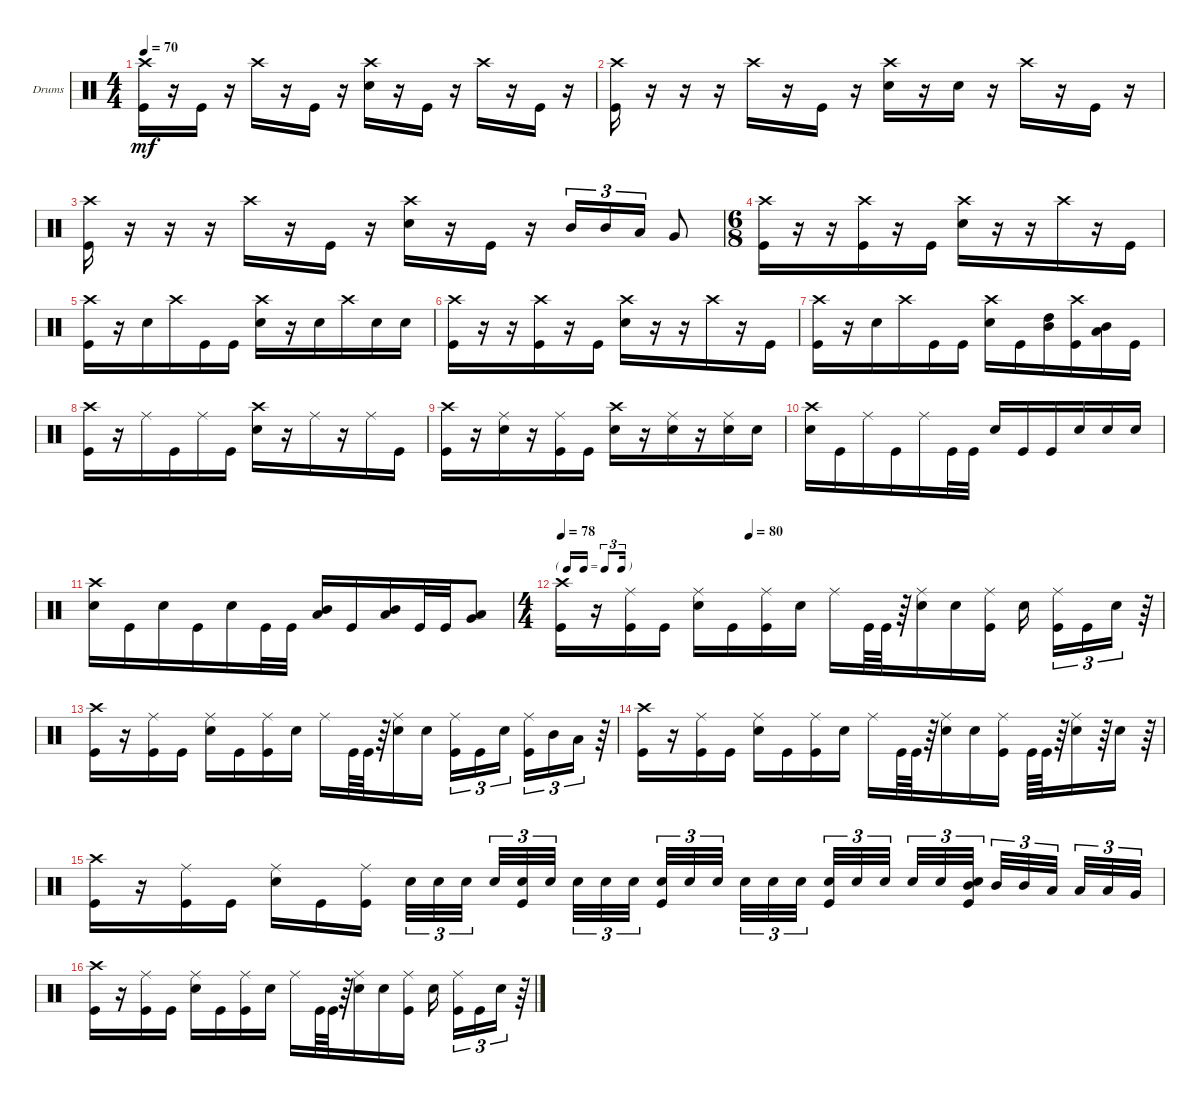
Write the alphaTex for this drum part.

\defaultSystemsLayout 4
\bracketExtendMode groupsimilarinstruments
\firstSystemTrackNameOrientation horizontal
\otherSystemsTrackNameOrientation horizontal
\track ("Drumkit" "Drums") {instrument percussion}
\staff {score}
\articulation defaults
\ts (4 4)
\tempo 70
\clef neutral
\ks c
("Kick (hit)" "Crash high (hit)").16{dy mf} r.16 "Kick (hit)".16 r.16 "Crash high (hit)".16 r.16 "Kick (hit)".16 r.16 ("Crash high (hit)" "Snare (hit) 2").16 r.16 "Kick (hit)".16 r.16 "Crash high (hit)".16 r.16 "Kick (hit)".16 r.16 |
("Kick (hit)" "Crash high (hit)").16 r.16 r.16 r.16 "Crash high (hit)".16 r.16 "Kick (hit)".16 r.16 ("Crash high (hit)" "Snare (hit) 2").16 r.16 "Snare (hit) 2".16 r.16 "Crash high (hit)".16 r.16 "Kick (hit)".16 r.16 |
("Kick (hit)" "Crash high (hit)").16 r.16 r.16 r.16 "Crash high (hit)".16 r.16 "Kick (hit)".16 r.16 ("Crash high (hit)" "Snare (hit) 2").16 r.16 "Kick (hit)".16 r.16 "Mid Tom (hit)".16{tu (3 2)} "Mid Tom (hit)".16{tu (3 2)} "Low Tom (hit)".16{tu (3 2)} "Very Low Tom (hit)".8 |
\ts (6 8)
("Crash high (hit)" "Kick (hit)").16 r.16 r.16 ("Crash high (hit)" "Kick (hit)").16 r.16 "Kick (hit)".16 ("Crash high (hit)" "Snare (hit) 2").16 r.16 r.16 "Crash high (hit)".16 r.16 "Kick (hit)".16 |
("Crash high (hit)" "Kick (hit)").16 r.16 "Snare (hit) 2".16 "Crash high (hit)".16 "Kick (hit)".16 "Kick (hit)".16 ("Crash high (hit)" "Snare (hit) 2").16 r.16 "Snare (hit) 2".16 "Crash high (hit)".16 "Snare (hit) 2".16 "Snare (hit) 2".16 |
("Crash high (hit)" "Kick (hit)").16 r.16 r.16 ("Crash high (hit)" "Kick (hit)").16 r.16 "Kick (hit)".16 ("Crash high (hit)" "Snare (hit) 2").16 r.16 r.16 "Crash high (hit)".16 r.16 "Kick (hit)".16 |
("Crash high (hit)" "Kick (hit)").16 r.16 "Snare (hit) 2".16 "Crash high (hit)".16 "Kick (hit)".16 "Kick (hit)".16 ("Crash high (hit)" "Snare (hit) 2").16 "Kick (hit)".16 ("High Tom (hit)" "Mid Tom (hit)").16 ("Crash high (hit)" "Kick (hit)").16 ("Mid Tom (hit)" "Low Tom (hit)").16 "Kick (hit)".16 |
("Kick (hit)" "Crash high (hit)").16 r.16 "Ride (middle)".16 "Kick (hit)".16 "Ride (middle)".16 "Kick (hit)".16 ("Snare (hit) 2" "Crash high (hit)").16 r.16 "Ride (middle)".16 r.16 "Ride (middle)".16 "Kick (hit)".16 |
("Kick (hit)" "Crash high (hit)").16 r.16 ("Snare (hit) 2" "Ride (middle)").16 r.16 ("Kick (hit)" "Ride (middle)").16 "Kick (hit)".16 ("Snare (hit) 2" "Crash high (hit)").16 r.16 ("Snare (hit) 2" "Ride (middle)").16 r.16 ("Snare (hit) 2" "Ride (middle)").16 "Snare (hit) 2".16 |
("Crash high (hit)" "Snare (hit) 2").16 "Kick (hit)".16 "Ride (middle)".16 "Kick (hit)".16 "Ride (middle)".16 "Kick (hit)".32 "Kick (hit)".32 "Snare (hit) 2".16 "Kick (hit)".16 "Kick (hit)".16 "Snare (hit) 2".16 "Snare (hit) 2".16 "Snare (hit) 2".16 |
("Crash high (hit)" "Snare (hit) 2").16 "Kick (hit)".16 "Snare (hit) 2".16 "Kick (hit)".16 "Snare (hit) 2".16 "Kick (hit)".32 "Kick (hit)".32 ("Mid Tom (hit)" "Low Tom (hit)").16 "Kick (hit)".16 ("Low Tom (hit)" "Mid Tom (hit)").16 "Kick (hit)".32 "Kick (hit)".32 ("Low Tom (hit)" "Very Low Tom (hit)").8 |
\ts (4 4)
\tf triplet16th
\tempo 78
\tempo (80 0.3125)
("Crash high (hit)" "Kick (hit)").16 r.16 ("Ride (middle)" "Kick (hit)").16 "Kick (hit)".16 ("Ride (middle)" "Snare (hit) 2").16 "Kick (hit)".16 ("Ride (middle)" "Kick (hit)").16 "Snare (hit) 2".16 "Ride (middle)".16 "Kick (hit)".64 "Kick (hit)".64 r.64 ("Snare (hit) 2" "Ride (middle)").16 "Snare (hit) 2".16 ("Kick (hit)" "Ride (middle)").16 "Snare (hit) 2".16 ("Kick (hit)" "Ride (middle)").16{tu (3 2)} "Kick (hit)".16{tu (3 2)} "Snare (hit) 2".16{tu (3 2)} r.64 |
("Crash high (hit)" "Kick (hit)").16 r.16 ("Ride (middle)" "Kick (hit)").16 "Kick (hit)".16 ("Ride (middle)" "Snare (hit) 2").16 "Kick (hit)".16 ("Ride (middle)" "Kick (hit)").16 "Snare (hit) 2".16 "Ride (middle)".16 "Kick (hit)".64 "Kick (hit)".64 r.64 ("Snare (hit) 2" "Ride (middle)").16 "Snare (hit) 2".16 ("Kick (hit)" "Ride (middle)").16{tu (3 2)} "Kick (hit)".16{tu (3 2)} "Snare (hit) 2".16{tu (3 2)} ("Kick (hit)" "Ride (middle)").16{tu (3 2)} "Mid Tom (hit)".16{tu (3 2)} "Low Tom (hit)".16{tu (3 2)} r.64 |
("Crash high (hit)" "Kick (hit)").16 r.16 ("Ride (middle)" "Kick (hit)").16 "Kick (hit)".16 ("Ride (middle)" "Snare (hit) 2").16 "Kick (hit)".16 ("Ride (middle)" "Kick (hit)").16 "Snare (hit) 2".16 "Ride (middle)".16 "Kick (hit)".64 "Kick (hit)".64 r.64 ("Snare (hit) 2" "Ride (middle)").16 "Snare (hit) 2".16 ("Kick (hit)" "Ride (middle)").16 "Kick (hit)".64 "Kick (hit)".64 r.64 ("Snare (hit) 2" "Ride (middle)").16 r.64 "Snare (hit) 2".16 r.64 |
("Crash high (hit)" "Kick (hit)").16 r.16 ("Ride (middle)" "Kick (hit)").16 "Kick (hit)".16 ("Ride (middle)" "Snare (hit) 2").16 "Kick (hit)".16 ("Ride (middle)" "Kick (hit)").16 "Snare (hit) 2".32{tu (3 2)} "Snare (hit) 2".32{tu (3 2)} "Snare (hit) 2".32{tu (3 2)} "Snare (hit) 2".32{tu (3 2)} ("Snare (hit) 2" "Kick (hit)").32{tu (3 2)} "Snare (hit) 2".32{tu (3 2)} "Snare (hit) 2".32{tu (3 2)} "Snare (hit) 2".32{tu (3 2)} "Snare (hit) 2".32{tu (3 2)} ("Snare (hit) 2" "Kick (hit)").32{tu (3 2)} "Snare (hit) 2".32{tu (3 2)} "Snare (hit) 2".32{tu (3 2)} "Snare (hit) 2".32{tu (3 2)} "Snare (hit) 2".32{tu (3 2)} "Snare (hit) 2".32{tu (3 2)} ("Snare (hit) 2" "Kick (hit)").32{tu (3 2)} "Snare (hit) 2".32{tu (3 2)} "Snare (hit) 2".32{tu (3 2)} "Snare (hit) 2".32{tu (3 2)} "Snare (hit) 2".32{tu (3 2)} ("Snare (hit) 2" "Mid Tom (hit)" "Kick (hit)").32{tu (3 2)} "Mid Tom (hit)".32{tu (3 2)} "Mid Tom (hit)".32{tu (3 2)} "Low Tom (hit)".32{tu (3 2)} "Low Tom (hit)".32{tu (3 2)} "Low Tom (hit)".32{tu (3 2)} "Very Low Tom (hit)".32{tu (3 2)} |
("Crash high (hit)" "Kick (hit)").16 r.16 ("Ride (middle)" "Kick (hit)").16 "Kick (hit)".16 ("Ride (middle)" "Snare (hit) 2").16 "Kick (hit)".16 ("Ride (middle)" "Kick (hit)").16 "Snare (hit) 2".16 "Ride (middle)".16 "Kick (hit)".64 "Kick (hit)".64 r.64 ("Snare (hit) 2" "Ride (middle)").16 "Snare (hit) 2".16 ("Kick (hit)" "Ride (middle)").16 "Snare (hit) 2".16 ("Kick (hit)" "Ride (middle)").16{tu (3 2)} "Kick (hit)".16{tu (3 2)} "Snare (hit) 2".16{tu (3 2)} r.64
